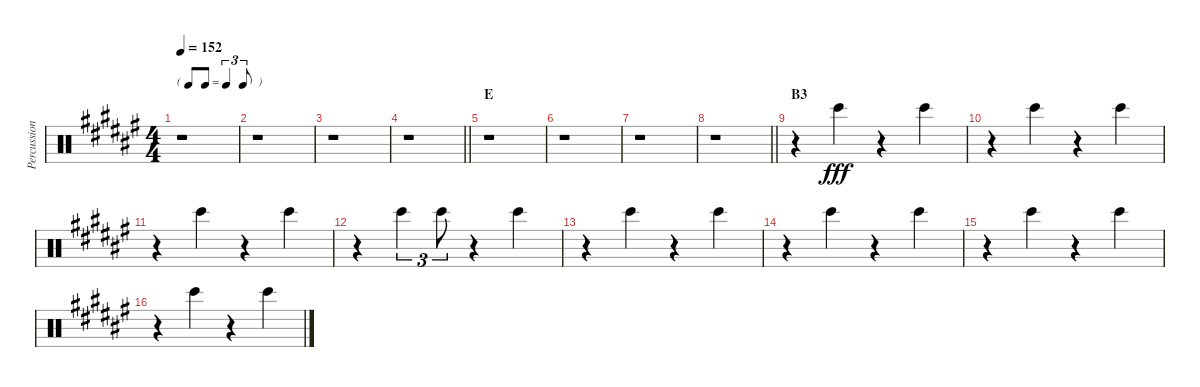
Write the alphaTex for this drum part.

\track ("Percussion" "Percussion") {instrument percussion}
\staff {score}
\articulation defaults
\ts (4 4)
\tf triplet8th
\tempo 152
\clef neutral
\ks f#
r.1{dy fff} |
r.1 |
r.1 |
\barLineRight lightlight
r.1 |
\section ("" "E")
r.1 |
r.1 |
r.1 |
\barLineRight lightlight
r.1 |
\section ("" "B3")
r.4 "Bongo High (hit)".4 r.4 "Bongo High (hit)".4 |
r.4 "Bongo High (hit)".4 r.4 "Bongo High (hit)".4 |
r.4 "Bongo High (hit)".4 r.4 "Bongo High (hit)".4 |
r.4 "Bongo High (hit)".4{tu (3 2)} "Bongo High (hit)".8{tu (3 2)} r.4 "Bongo High (hit)".4 |
r.4 "Bongo High (hit)".4 r.4 "Bongo High (hit)".4 |
r.4 "Bongo High (hit)".4 r.4 "Bongo High (hit)".4 |
r.4 "Bongo High (hit)".4 r.4 "Bongo High (hit)".4 |
r.4 "Bongo High (hit)".4 r.4 "Bongo High (hit)".4
